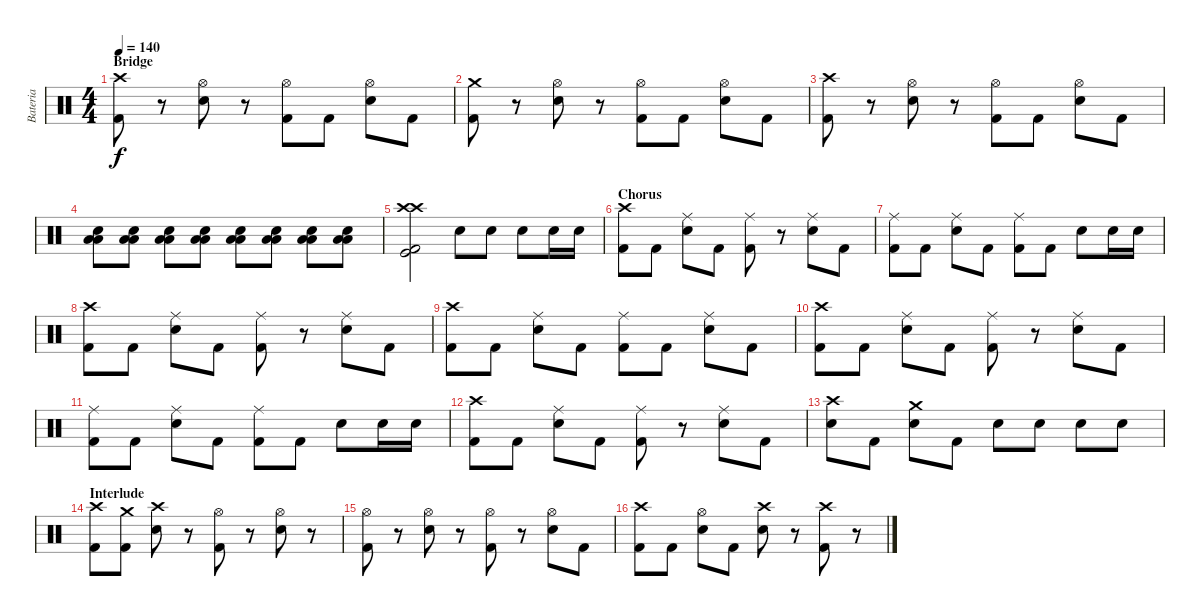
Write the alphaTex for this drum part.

\track ("Bateria" "Bateria") {instrument percussion}
\staff {score}
\articulation defaults
\ts (4 4)
\section ("" "Bridge")
\tempo 140
\clef neutral
\ks c
("Crash high (hit)" "Kick (hit) 2").8{dy f} r.8 ("Hi-Hat (open)" "Snare (hit) 2").8 r.8 ("Hi-Hat (open)" "Kick (hit) 2").8 "Kick (hit) 2".8 ("Hi-Hat (open)" "Snare (hit) 2").8 "Kick (hit) 2".8 |
("Crash medium (hit)" "Kick (hit) 2").8 r.8 ("Hi-Hat (open)" "Snare (hit) 2").8 r.8 ("Hi-Hat (open)" "Kick (hit) 2").8 "Kick (hit) 2".8 ("Hi-Hat (open)" "Snare (hit) 2").8 "Kick (hit) 2".8 |
("Crash high (hit)" "Kick (hit) 2").8 r.8 ("Hi-Hat (open)" "Snare (hit) 2").8 r.8 ("Hi-Hat (open)" "Kick (hit) 2").8 "Kick (hit) 2".8 ("Hi-Hat (open)" "Snare (hit) 2").8 "Kick (hit) 2".8 |
("Low Floor Tom (hit)" "Low Floor Tom (hit)" "Snare (hit) 2").8 ("Low Floor Tom (hit)" "Low Floor Tom (hit)" "Snare (hit) 2").8 ("Low Floor Tom (hit)" "Low Floor Tom (hit)" "Snare (hit) 2").8 ("Low Floor Tom (hit)" "Low Floor Tom (hit)" "Snare (hit) 2").8 ("Low Floor Tom (hit)" "Low Floor Tom (hit)" "Snare (hit) 2").8 ("Low Floor Tom (hit)" "Low Floor Tom (hit)" "Snare (hit) 2").8 ("Low Floor Tom (hit)" "Low Floor Tom (hit)" "Snare (hit) 2").8 ("Low Floor Tom (hit)" "Low Floor Tom (hit)" "Snare (hit) 2").8 |
("Crash high (hit)" "Crash high (hit)" "Kick (hit)" "Kick (hit) 2").2 "Snare (hit) 2".8 "Snare (hit) 2".8 "Snare (hit) 2".8 "Snare (hit) 2".16 "Snare (hit) 2".16 |
\section ("" "Chorus")
("Crash high (hit)" "Kick (hit) 2").8 "Kick (hit) 2".8 ("Ride (middle)" "Snare (hit) 2").8 "Kick (hit) 2".8 ("Ride (middle)" "Kick (hit) 2").8 r.8 ("Ride (middle)" "Snare (hit) 2").8 "Kick (hit) 2".8 |
("Ride (middle)" "Kick (hit) 2").8 "Kick (hit) 2".8 ("Ride (middle)" "Snare (hit) 2").8 "Kick (hit) 2".8 ("Ride (middle)" "Kick (hit) 2").8 "Kick (hit) 2".8 "Snare (hit) 2".8 "Snare (hit) 2".16 "Snare (hit) 2".16 |
("Crash high (hit)" "Kick (hit) 2").8 "Kick (hit) 2".8 ("Ride (middle)" "Snare (hit) 2").8 "Kick (hit) 2".8 ("Ride (middle)" "Kick (hit) 2").8 r.8 ("Ride (middle)" "Snare (hit) 2").8 "Kick (hit) 2".8 |
("Crash high (hit)" "Kick (hit) 2").8 "Kick (hit) 2".8 ("Ride (middle)" "Snare (hit) 2").8 "Kick (hit) 2".8 ("Ride (middle)" "Kick (hit) 2").8 "Kick (hit) 2".8 ("Ride (middle)" "Snare (hit) 2").8 "Kick (hit) 2".8 |
("Crash high (hit)" "Kick (hit) 2").8 "Kick (hit) 2".8 ("Ride (middle)" "Snare (hit) 2").8 "Kick (hit) 2".8 ("Ride (middle)" "Kick (hit) 2").8 r.8 ("Ride (middle)" "Snare (hit) 2").8 "Kick (hit) 2".8 |
("Ride (middle)" "Kick (hit) 2").8 "Kick (hit) 2".8 ("Ride (middle)" "Snare (hit) 2").8 "Kick (hit) 2".8 ("Ride (middle)" "Kick (hit) 2").8 "Kick (hit) 2".8 "Snare (hit) 2".8 "Snare (hit) 2".16 "Snare (hit) 2".16 |
("Crash high (hit)" "Kick (hit) 2").8 "Kick (hit) 2".8 ("Ride (middle)" "Snare (hit) 2").8 "Kick (hit) 2".8 ("Ride (middle)" "Kick (hit) 2").8 r.8 ("Ride (middle)" "Snare (hit) 2").8 "Kick (hit) 2".8 |
("Crash high (hit)" "Snare (hit) 2").8 "Kick (hit) 2".8 ("Crash medium (hit)" "Snare (hit) 2").8 "Kick (hit) 2".8 "Snare (hit) 2".8 "Snare (hit) 2".8 "Snare (hit) 2".8 "Snare (hit) 2".8 |
\section ("" "Interlude")
("Crash high (hit)" "Kick (hit) 2").8 ("Crash medium (hit)" "Kick (hit) 2").8 ("Crash high (hit)" "Snare (hit) 2").8 r.8 ("Hi-Hat (open)" "Kick (hit) 2").8 r.8 ("Hi-Hat (open)" "Snare (hit) 2").8 r.8 |
("Hi-Hat (open)" "Kick (hit) 2").8 r.8 ("Hi-Hat (open)" "Snare (hit) 2").8 r.8 ("Hi-Hat (open)" "Kick (hit) 2").8 r.8 ("Hi-Hat (open)" "Snare (hit) 2").8 "Kick (hit) 2".8 |
("Crash high (hit)" "Kick (hit) 2").8 "Kick (hit) 2".8 ("Hi-Hat (open)" "Snare (hit) 2").8 "Kick (hit) 2".8 ("Crash high (hit)" "Snare (hit) 2").8 r.8 ("Crash high (hit)" "Kick (hit) 2").8 r.8
